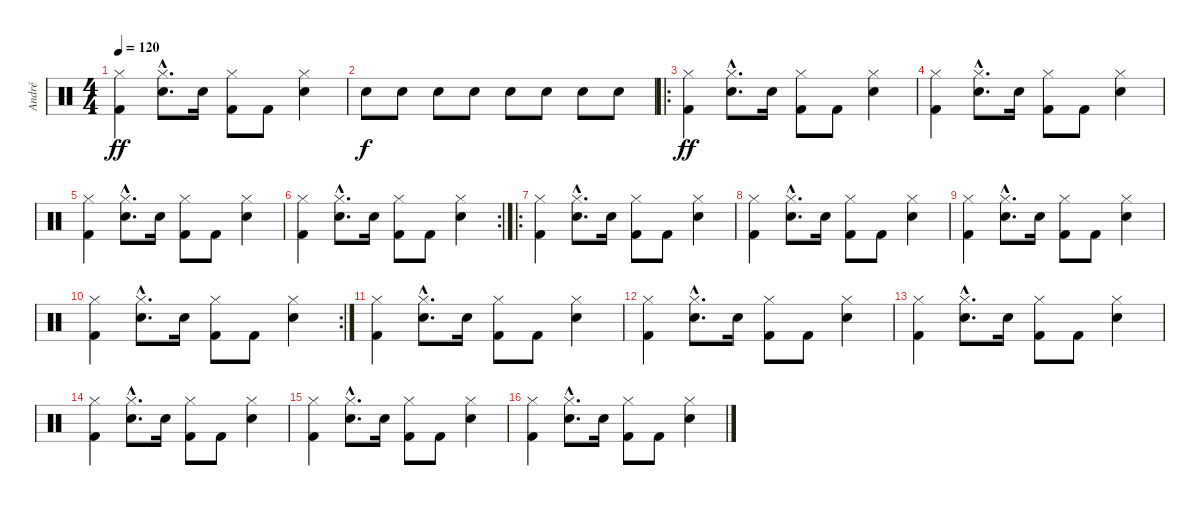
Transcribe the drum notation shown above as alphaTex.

\track ("André" "André") {instrument percussion}
\staff {score}
\articulation defaults
\ts (4 4)
\tempo 120
\clef neutral
\ks c
("Hi-Hat (closed)" "Kick (hit) 2").4{dy ff} ("Hi-Hat (closed)" "Electric Snare (hit)"{hac}).8{d} "Electric Snare (hit)".16 ("Hi-Hat (closed)" "Kick (hit) 2").8 "Kick (hit) 2".8 ("Hi-Hat (closed)" "Electric Snare (hit)").4 |
"Electric Snare (hit)".8{dy f} "Electric Snare (hit)".8 "Snare (hit)".8 "Electric Snare (hit)".8 "Electric Snare (hit)".8 "Electric Snare (hit)".8 "Electric Snare (hit)".8 "Electric Snare (hit)".8 |
\ro
("Hi-Hat (closed)" "Kick (hit) 2").4{dy ff} ("Hi-Hat (closed)" "Electric Snare (hit)"{hac}).8{d} "Electric Snare (hit)".16 ("Hi-Hat (closed)" "Kick (hit) 2").8 "Kick (hit) 2".8 ("Hi-Hat (closed)" "Electric Snare (hit)").4 |
("Hi-Hat (closed)" "Kick (hit) 2").4 ("Hi-Hat (closed)" "Electric Snare (hit)"{hac}).8{d} "Electric Snare (hit)".16 ("Hi-Hat (closed)" "Kick (hit) 2").8 "Kick (hit) 2".8 ("Hi-Hat (closed)" "Electric Snare (hit)").4 |
("Hi-Hat (closed)" "Kick (hit) 2").4 ("Hi-Hat (closed)" "Electric Snare (hit)"{hac}).8{d} "Electric Snare (hit)".16 ("Hi-Hat (closed)" "Kick (hit) 2").8 "Kick (hit) 2".8 ("Hi-Hat (closed)" "Electric Snare (hit)").4 |
\rc 2
("Hi-Hat (closed)" "Kick (hit) 2").4 ("Hi-Hat (closed)" "Electric Snare (hit)"{hac}).8{d} "Electric Snare (hit)".16 ("Hi-Hat (closed)" "Kick (hit) 2").8 "Kick (hit) 2".8 ("Hi-Hat (closed)" "Electric Snare (hit)").4 |
\ro
("Hi-Hat (closed)" "Kick (hit) 2").4 ("Hi-Hat (closed)" "Electric Snare (hit)"{hac}).8{d} "Electric Snare (hit)".16 ("Hi-Hat (closed)" "Kick (hit) 2").8 "Kick (hit) 2".8 ("Hi-Hat (closed)" "Electric Snare (hit)").4 |
("Hi-Hat (closed)" "Kick (hit) 2").4 ("Hi-Hat (closed)" "Electric Snare (hit)"{hac}).8{d} "Electric Snare (hit)".16 ("Hi-Hat (closed)" "Kick (hit) 2").8 "Kick (hit) 2".8 ("Hi-Hat (closed)" "Electric Snare (hit)").4 |
("Hi-Hat (closed)" "Kick (hit) 2").4 ("Hi-Hat (closed)" "Electric Snare (hit)"{hac}).8{d} "Electric Snare (hit)".16 ("Hi-Hat (closed)" "Kick (hit) 2").8 "Kick (hit) 2".8 ("Hi-Hat (closed)" "Electric Snare (hit)").4 |
\rc 2
("Hi-Hat (closed)" "Kick (hit) 2").4 ("Hi-Hat (closed)" "Electric Snare (hit)"{hac}).8{d} "Electric Snare (hit)".16 ("Hi-Hat (closed)" "Kick (hit) 2").8 "Kick (hit) 2".8 ("Hi-Hat (closed)" "Electric Snare (hit)").4 |
("Hi-Hat (closed)" "Kick (hit) 2").4 ("Hi-Hat (closed)" "Electric Snare (hit)"{hac}).8{d} "Electric Snare (hit)".16 ("Hi-Hat (closed)" "Kick (hit) 2").8 "Kick (hit) 2".8 ("Hi-Hat (closed)" "Electric Snare (hit)").4 |
("Hi-Hat (closed)" "Kick (hit) 2").4 ("Hi-Hat (closed)" "Electric Snare (hit)"{hac}).8{d} "Electric Snare (hit)".16 ("Hi-Hat (closed)" "Kick (hit) 2").8 "Kick (hit) 2".8 ("Hi-Hat (closed)" "Electric Snare (hit)").4 |
("Hi-Hat (closed)" "Kick (hit) 2").4 ("Hi-Hat (closed)" "Electric Snare (hit)"{hac}).8{d} "Electric Snare (hit)".16 ("Hi-Hat (closed)" "Kick (hit) 2").8 "Kick (hit) 2".8 ("Hi-Hat (closed)" "Electric Snare (hit)").4 |
("Hi-Hat (closed)" "Kick (hit) 2").4 ("Hi-Hat (closed)" "Electric Snare (hit)"{hac}).8{d} "Electric Snare (hit)".16 ("Hi-Hat (closed)" "Kick (hit) 2").8 "Kick (hit) 2".8 ("Hi-Hat (closed)" "Electric Snare (hit)").4 |
("Hi-Hat (closed)" "Kick (hit) 2").4 ("Hi-Hat (closed)" "Electric Snare (hit)"{hac}).8{d} "Electric Snare (hit)".16 ("Hi-Hat (closed)" "Kick (hit) 2").8 "Kick (hit) 2".8 ("Hi-Hat (closed)" "Electric Snare (hit)").4 |
("Hi-Hat (closed)" "Kick (hit) 2").4 ("Hi-Hat (closed)" "Electric Snare (hit)"{hac}).8{d} "Electric Snare (hit)".16 ("Hi-Hat (closed)" "Kick (hit) 2").8 "Kick (hit) 2".8 ("Hi-Hat (closed)" "Electric Snare (hit)").4
